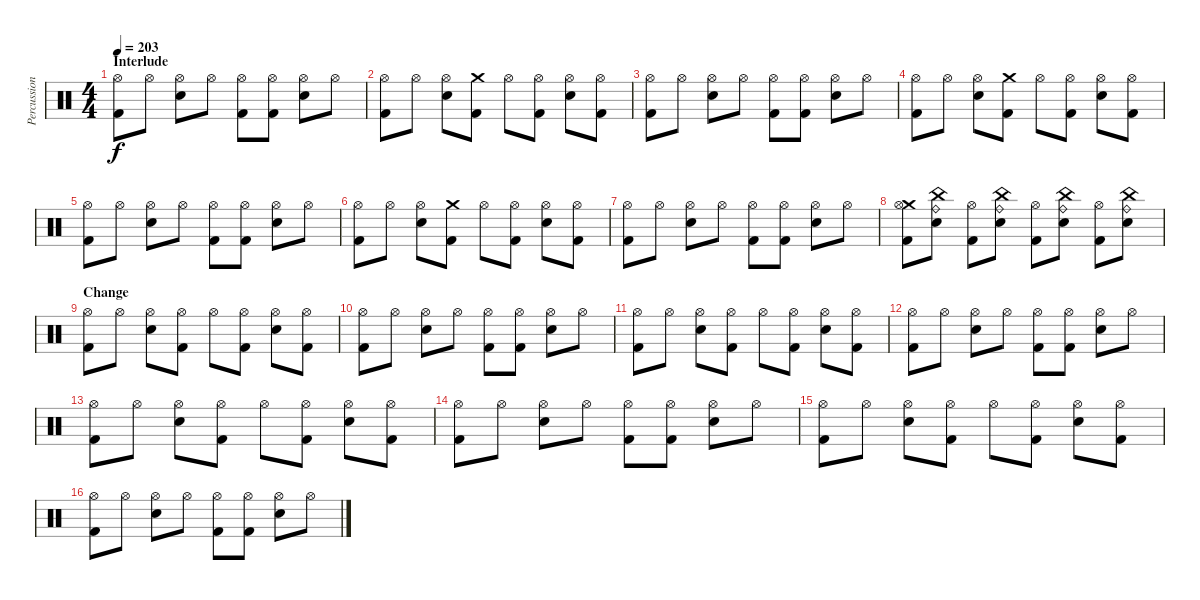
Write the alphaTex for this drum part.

\track ("Percussion" "Percussion") {instrument percussion}
\staff {score}
\articulation defaults
\ts (4 4)
\section ("" "Interlude")
\tempo 203
\clef neutral
\ks c
("Hi-Hat (open)" "Kick (hit) 2").8{dy f} "Hi-Hat (open)".8 ("Hi-Hat (open)" "Electric Snare (hit)").8 "Hi-Hat (open)".8 ("Hi-Hat (open)" "Kick (hit) 2").8 ("Hi-Hat (open)" "Kick (hit) 2").8 ("Hi-Hat (open)" "Electric Snare (hit)").8 "Hi-Hat (open)".8 |
("Hi-Hat (open)" "Kick (hit) 2").8 "Hi-Hat (open)".8 ("Hi-Hat (open)" "Electric Snare (hit)").8 ("Crash medium (hit)" "Kick (hit) 2").8 "Hi-Hat (open)".8 ("Hi-Hat (open)" "Kick (hit) 2").8 ("Hi-Hat (open)" "Electric Snare (hit)").8 ("Hi-Hat (open)" "Kick (hit) 2").8 |
("Hi-Hat (open)" "Kick (hit) 2").8 "Hi-Hat (open)".8 ("Hi-Hat (open)" "Electric Snare (hit)").8 "Hi-Hat (open)".8 ("Hi-Hat (open)" "Kick (hit) 2").8 ("Hi-Hat (open)" "Kick (hit) 2").8 ("Hi-Hat (open)" "Electric Snare (hit)").8 "Hi-Hat (open)".8 |
("Hi-Hat (open)" "Kick (hit) 2").8 "Hi-Hat (open)".8 ("Hi-Hat (open)" "Electric Snare (hit)").8 ("Crash medium (hit)" "Kick (hit) 2").8 "Hi-Hat (open)".8 ("Hi-Hat (open)" "Kick (hit) 2").8 ("Hi-Hat (open)" "Electric Snare (hit)").8 ("Hi-Hat (open)" "Kick (hit) 2").8 |
("Hi-Hat (open)" "Kick (hit) 2").8 "Hi-Hat (open)".8 ("Hi-Hat (open)" "Electric Snare (hit)").8 "Hi-Hat (open)".8 ("Hi-Hat (open)" "Kick (hit) 2").8 ("Hi-Hat (open)" "Kick (hit) 2").8 ("Hi-Hat (open)" "Electric Snare (hit)").8 "Hi-Hat (open)".8 |
("Hi-Hat (open)" "Kick (hit) 2").8 "Hi-Hat (open)".8 ("Hi-Hat (open)" "Electric Snare (hit)").8 ("Crash medium (hit)" "Kick (hit) 2").8 "Hi-Hat (open)".8 ("Hi-Hat (open)" "Kick (hit) 2").8 ("Hi-Hat (open)" "Electric Snare (hit)").8 ("Hi-Hat (open)" "Kick (hit) 2").8 |
("Hi-Hat (open)" "Kick (hit) 2").8 "Hi-Hat (open)".8 ("Hi-Hat (open)" "Electric Snare (hit)").8 "Hi-Hat (open)".8 ("Hi-Hat (open)" "Kick (hit) 2").8 ("Hi-Hat (open)" "Kick (hit) 2").8 ("Hi-Hat (open)" "Electric Snare (hit)").8 "Hi-Hat (open)".8 |
("Crash medium (hit)" "Hi-Hat (open)" "Kick (hit) 2").8 ("China (hit)" "Ride (bell)" "Electric Snare (hit)").8 ("Hi-Hat (open)" "Kick (hit) 2").8 ("China (hit)" "Ride (bell)" "Electric Snare (hit)").8 ("Hi-Hat (open)" "Kick (hit) 2").8 ("China (hit)" "Ride (bell)" "Electric Snare (hit)").8 ("Hi-Hat (open)" "Kick (hit) 2").8 ("China (hit)" "Ride (bell)" "Electric Snare (hit)").8 |
\section ("" "Change")
("Hi-Hat (open)" "Kick (hit) 2").8 "Hi-Hat (open)".8 ("Hi-Hat (open)" "Electric Snare (hit)").8 ("Hi-Hat (open)" "Kick (hit) 2").8 "Hi-Hat (open)".8 ("Hi-Hat (open)" "Kick (hit) 2").8 ("Hi-Hat (open)" "Electric Snare (hit)").8 ("Hi-Hat (open)" "Kick (hit) 2").8 |
("Hi-Hat (open)" "Kick (hit) 2").8 "Hi-Hat (open)".8 ("Hi-Hat (open)" "Electric Snare (hit)").8 "Hi-Hat (open)".8 ("Hi-Hat (open)" "Kick (hit) 2").8 ("Hi-Hat (open)" "Kick (hit) 2").8 ("Hi-Hat (open)" "Electric Snare (hit)").8 "Hi-Hat (open)".8 |
("Hi-Hat (open)" "Kick (hit) 2").8 "Hi-Hat (open)".8 ("Hi-Hat (open)" "Electric Snare (hit)").8 ("Hi-Hat (open)" "Kick (hit) 2").8 "Hi-Hat (open)".8 ("Hi-Hat (open)" "Kick (hit) 2").8 ("Hi-Hat (open)" "Electric Snare (hit)").8 ("Hi-Hat (open)" "Kick (hit) 2").8 |
("Hi-Hat (open)" "Kick (hit) 2").8 "Hi-Hat (open)".8 ("Hi-Hat (open)" "Electric Snare (hit)").8 "Hi-Hat (open)".8 ("Hi-Hat (open)" "Kick (hit) 2").8 ("Hi-Hat (open)" "Kick (hit) 2").8 ("Hi-Hat (open)" "Electric Snare (hit)").8 "Hi-Hat (open)".8 |
("Hi-Hat (open)" "Kick (hit) 2").8 "Hi-Hat (open)".8 ("Hi-Hat (open)" "Electric Snare (hit)").8 ("Hi-Hat (open)" "Kick (hit) 2").8 "Hi-Hat (open)".8 ("Hi-Hat (open)" "Kick (hit) 2").8 ("Hi-Hat (open)" "Electric Snare (hit)").8 ("Hi-Hat (open)" "Kick (hit) 2").8 |
("Hi-Hat (open)" "Kick (hit) 2").8 "Hi-Hat (open)".8 ("Hi-Hat (open)" "Electric Snare (hit)").8 "Hi-Hat (open)".8 ("Hi-Hat (open)" "Kick (hit) 2").8 ("Hi-Hat (open)" "Kick (hit) 2").8 ("Hi-Hat (open)" "Electric Snare (hit)").8 "Hi-Hat (open)".8 |
("Hi-Hat (open)" "Kick (hit) 2").8 "Hi-Hat (open)".8 ("Hi-Hat (open)" "Electric Snare (hit)").8 ("Hi-Hat (open)" "Kick (hit) 2").8 "Hi-Hat (open)".8 ("Hi-Hat (open)" "Kick (hit) 2").8 ("Hi-Hat (open)" "Electric Snare (hit)").8 ("Hi-Hat (open)" "Kick (hit) 2").8 |
("Hi-Hat (open)" "Kick (hit) 2").8 "Hi-Hat (open)".8 ("Hi-Hat (open)" "Electric Snare (hit)").8 "Hi-Hat (open)".8 ("Hi-Hat (open)" "Kick (hit) 2").8 ("Hi-Hat (open)" "Kick (hit) 2").8 ("Hi-Hat (open)" "Electric Snare (hit)").8 "Hi-Hat (open)".8
